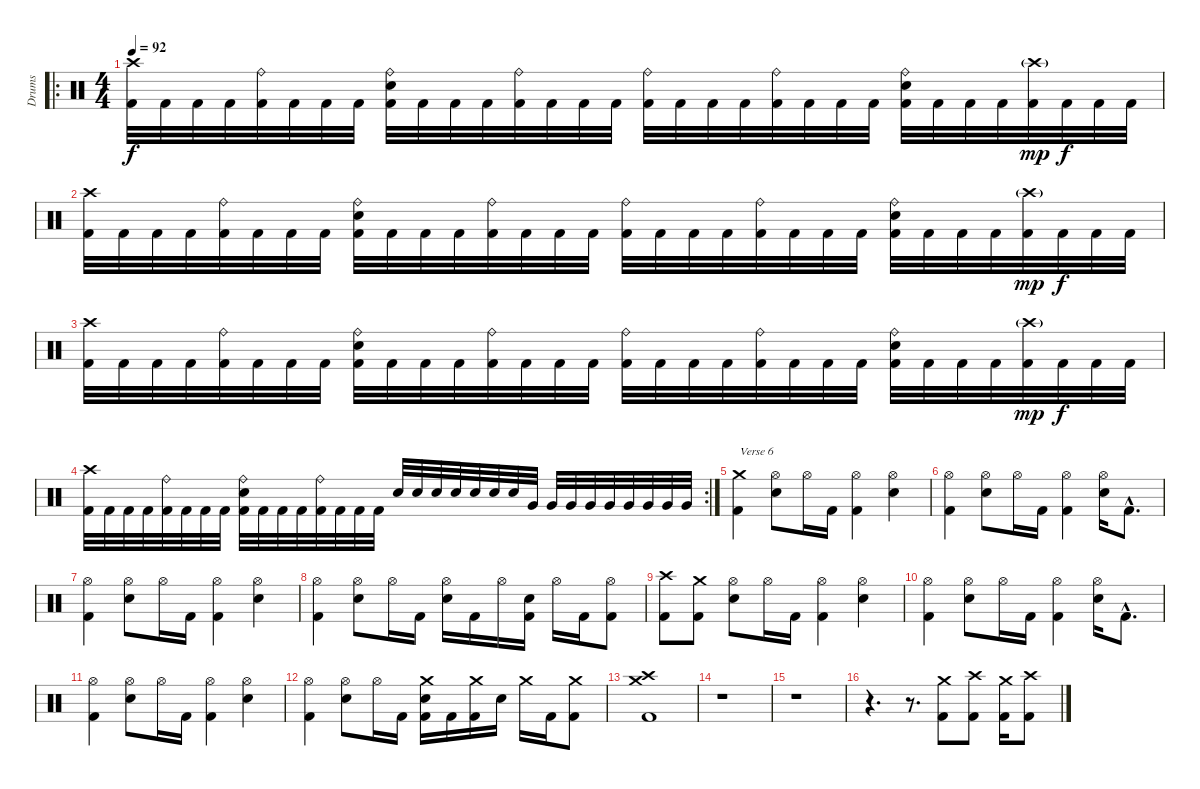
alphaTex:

\track ("Drums" "Drums") {instrument percussion}
\staff {score}
\articulation defaults
\ro
\ts (4 4)
\tempo 92
\clef neutral
\ks c
("Crash high (hit)" "Kick (hit) 2").32{dy f} "Kick (hit) 2".32 "Kick (hit) 2".32 "Kick (hit) 2".32 ("Ride (bell)" "Kick (hit) 2").32 "Kick (hit) 2".32 "Kick (hit) 2".32 "Kick (hit) 2".32 ("Ride (bell)" "Electric Snare (hit)" "Kick (hit) 2").32 "Kick (hit) 2".32 "Kick (hit) 2".32 "Kick (hit) 2".32 ("Ride (bell)" "Kick (hit) 2").32 "Kick (hit) 2".32 "Kick (hit) 2".32 "Kick (hit) 2".32 ("Ride (bell)" "Kick (hit) 2").32 "Kick (hit) 2".32 "Kick (hit) 2".32 "Kick (hit) 2".32 ("Ride (bell)" "Kick (hit) 2").32 "Kick (hit) 2".32 "Kick (hit) 2".32 "Kick (hit) 2".32 ("Ride (bell)" "Electric Snare (hit)" "Kick (hit) 2").32 "Kick (hit) 2".32 "Kick (hit) 2".32 "Kick (hit) 2".32 ("Crash high (hit)"{g} "Kick (hit) 2").32{dy mp} "Kick (hit) 2".32{dy f} "Kick (hit) 2".32 "Kick (hit) 2".32 |
("Crash high (hit)" "Kick (hit) 2").32 "Kick (hit) 2".32 "Kick (hit) 2".32 "Kick (hit) 2".32 ("Ride (bell)" "Kick (hit) 2").32 "Kick (hit) 2".32 "Kick (hit) 2".32 "Kick (hit) 2".32 ("Ride (bell)" "Electric Snare (hit)" "Kick (hit) 2").32 "Kick (hit) 2".32 "Kick (hit) 2".32 "Kick (hit) 2".32 ("Ride (bell)" "Kick (hit) 2").32 "Kick (hit) 2".32 "Kick (hit) 2".32 "Kick (hit) 2".32 ("Ride (bell)" "Kick (hit) 2").32 "Kick (hit) 2".32 "Kick (hit) 2".32 "Kick (hit) 2".32 ("Ride (bell)" "Kick (hit) 2").32 "Kick (hit) 2".32 "Kick (hit) 2".32 "Kick (hit) 2".32 ("Ride (bell)" "Electric Snare (hit)" "Kick (hit) 2").32 "Kick (hit) 2".32 "Kick (hit) 2".32 "Kick (hit) 2".32 ("Crash high (hit)"{g} "Kick (hit) 2").32{dy mp} "Kick (hit) 2".32{dy f} "Kick (hit) 2".32 "Kick (hit) 2".32 |
("Crash high (hit)" "Kick (hit) 2").32 "Kick (hit) 2".32 "Kick (hit) 2".32 "Kick (hit) 2".32 ("Ride (bell)" "Kick (hit) 2").32 "Kick (hit) 2".32 "Kick (hit) 2".32 "Kick (hit) 2".32 ("Ride (bell)" "Electric Snare (hit)" "Kick (hit) 2").32 "Kick (hit) 2".32 "Kick (hit) 2".32 "Kick (hit) 2".32 ("Ride (bell)" "Kick (hit) 2").32 "Kick (hit) 2".32 "Kick (hit) 2".32 "Kick (hit) 2".32 ("Ride (bell)" "Kick (hit) 2").32 "Kick (hit) 2".32 "Kick (hit) 2".32 "Kick (hit) 2".32 ("Ride (bell)" "Kick (hit) 2").32 "Kick (hit) 2".32 "Kick (hit) 2".32 "Kick (hit) 2".32 ("Ride (bell)" "Electric Snare (hit)" "Kick (hit) 2").32 "Kick (hit) 2".32 "Kick (hit) 2".32 "Kick (hit) 2".32 ("Crash high (hit)"{g} "Kick (hit) 2").32{dy mp} "Kick (hit) 2".32{dy f} "Kick (hit) 2".32 "Kick (hit) 2".32 |
\rc 2
("Crash high (hit)" "Kick (hit) 2").32 "Kick (hit) 2".32 "Kick (hit) 2".32 "Kick (hit) 2".32 ("Ride (bell)" "Kick (hit) 2").32 "Kick (hit) 2".32 "Kick (hit) 2".32 "Kick (hit) 2".32 ("Ride (bell)" "Electric Snare (hit)" "Kick (hit) 2").32 "Kick (hit) 2".32 "Kick (hit) 2".32 "Kick (hit) 2".32 ("Ride (bell)" "Kick (hit) 2").32 "Kick (hit) 2".32 "Kick (hit) 2".32 "Kick (hit) 2".32 "Electric Snare (hit)".32 "Electric Snare (hit)".32 "Electric Snare (hit)".32 "Electric Snare (hit)".32 "Electric Snare (hit)".32 "Electric Snare (hit)".32 "Electric Snare (hit)".32 "Very Low Tom (hit)".32 "Very Low Tom (hit)".32 "Very Low Tom (hit)".32 "Very Low Tom (hit)".32 "Very Low Tom (hit)".32 "Very Low Tom (hit)".32 "Very Low Tom (hit)".32 "Very Low Tom (hit)".32 "Very Low Tom (hit)".32 |
("Crash medium (hit)" "Kick (hit) 2").4{txt "Verse 6"} ("Hi-Hat (open)" "Electric Snare (hit)").8 "Hi-Hat (open)".16 "Kick (hit) 2".16 ("Hi-Hat (open)" "Kick (hit) 2").4 ("Hi-Hat (open)" "Electric Snare (hit)").4 |
("Hi-Hat (open)" "Kick (hit) 2").4 ("Hi-Hat (open)" "Electric Snare (hit)").8 "Hi-Hat (open)".16 "Kick (hit) 2".16 ("Hi-Hat (open)" "Kick (hit) 2").4 ("Hi-Hat (open)" "Electric Snare (hit)").16 "Kick (hit) 2"{hac}.8{d} |
("Hi-Hat (open)" "Kick (hit) 2").4 ("Hi-Hat (open)" "Electric Snare (hit)").8 "Hi-Hat (open)".16 "Kick (hit) 2".16 ("Hi-Hat (open)" "Kick (hit) 2").4 ("Hi-Hat (open)" "Electric Snare (hit)").4 |
("Hi-Hat (open)" "Kick (hit) 2").4 ("Hi-Hat (open)" "Electric Snare (hit)").8 "Hi-Hat (open)".16 "Kick (hit) 2".16 ("Hi-Hat (open)" "Electric Snare (hit)").16 "Kick (hit) 2".16 "Hi-Hat (open)".16 ("Electric Snare (hit)" "Kick (hit) 2").16 "Hi-Hat (open)".16 "Kick (hit) 2".16 ("Hi-Hat (open)" "Kick (hit) 2").8 |
("Crash high (hit)" "Kick (hit) 2").8 ("Crash medium (hit)" "Kick (hit) 2").8 ("Hi-Hat (open)" "Electric Snare (hit)").8 "Hi-Hat (open)".16 "Kick (hit) 2".16 ("Hi-Hat (open)" "Kick (hit) 2").4 ("Hi-Hat (open)" "Electric Snare (hit)").4 |
("Hi-Hat (open)" "Kick (hit) 2").4 ("Hi-Hat (open)" "Electric Snare (hit)").8 "Hi-Hat (open)".16 "Kick (hit) 2".16 ("Hi-Hat (open)" "Kick (hit) 2").4 ("Hi-Hat (open)" "Electric Snare (hit)").16 "Kick (hit) 2"{hac}.8{d} |
("Hi-Hat (open)" "Kick (hit) 2").4 ("Hi-Hat (open)" "Electric Snare (hit)").8 "Hi-Hat (open)".16 "Kick (hit) 2".16 ("Hi-Hat (open)" "Kick (hit) 2").4 ("Hi-Hat (open)" "Electric Snare (hit)").4 |
("Hi-Hat (open)" "Kick (hit) 2").4 ("Hi-Hat (open)" "Electric Snare (hit)").8 "Hi-Hat (open)".16 "Kick (hit) 2".16 ("Crash medium (hit)" "Electric Snare (hit)" "Kick (hit) 2").16 "Kick (hit) 2".16 ("Crash medium (hit)" "Kick (hit) 2").16 "Electric Snare (hit)".16 "Crash medium (hit)".16 "Kick (hit) 2".16 ("Crash medium (hit)" "Kick (hit) 2").8 |
("Crash medium (hit)" "Crash high (hit)" "Kick (hit) 2").1 |
r.1 |
r.1 |
r.4{d} r.8{d} ("Crash medium (hit)" "Kick (hit) 2").8 ("Crash high (hit)" "Kick (hit) 2").8 ("Crash medium (hit)" "Kick (hit) 2").16 ("Crash high (hit)" "Kick (hit) 2").8
